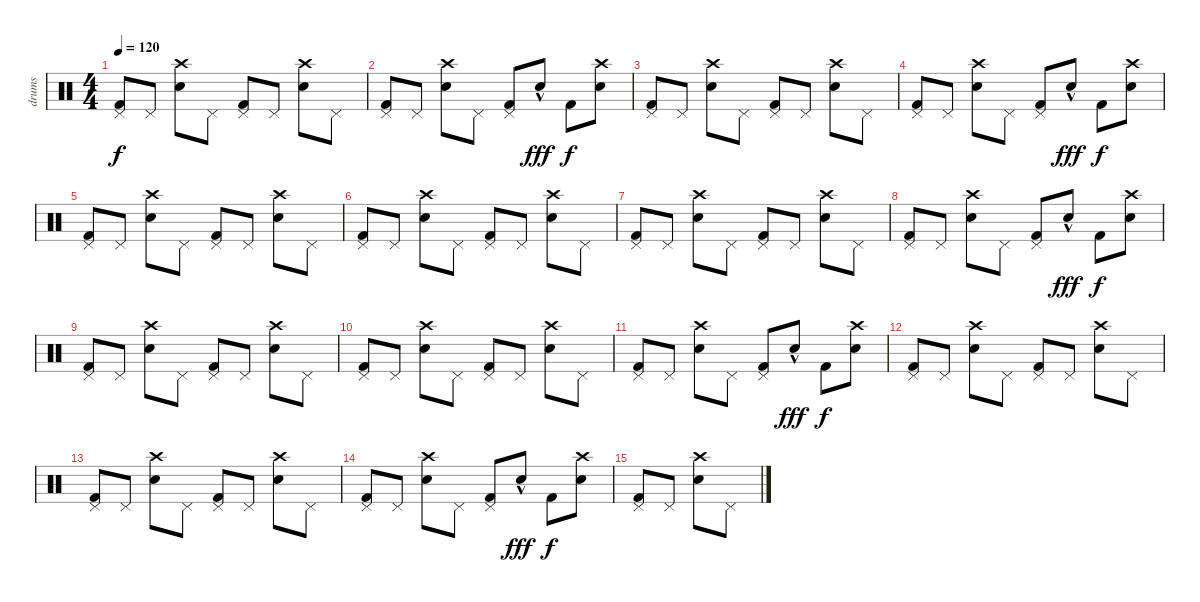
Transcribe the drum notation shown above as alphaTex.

\track ("drums" "drums") {instrument percussion}
\staff {score}
\articulation defaults
\ts (4 4)
\tempo 120
\clef neutral
\ks c
("Pedal Hi-Hat (hit)" "Kick (hit) 2").8{dy f} "Pedal Hi-Hat (hit)".8 ("Crash high (hit)" "Electric Snare (hit)").8 "Pedal Hi-Hat (hit)".8 ("Pedal Hi-Hat (hit)" "Kick (hit) 2").8 "Pedal Hi-Hat (hit)".8 ("Crash high (hit)" "Electric Snare (hit)").8 "Pedal Hi-Hat (hit)".8 |
("Pedal Hi-Hat (hit)" "Kick (hit) 2").8 "Pedal Hi-Hat (hit)".8 ("Crash high (hit)" "Electric Snare (hit)").8 "Pedal Hi-Hat (hit)".8 ("Pedal Hi-Hat (hit)" "Kick (hit) 2").8 "Electric Snare (hit)"{hac}.8{dy fff} "Kick (hit) 2".8{dy f} ("Crash high (hit)" "Electric Snare (hit)").8 |
("Pedal Hi-Hat (hit)" "Kick (hit) 2").8 "Pedal Hi-Hat (hit)".8 ("Crash high (hit)" "Electric Snare (hit)").8 "Pedal Hi-Hat (hit)".8 ("Pedal Hi-Hat (hit)" "Kick (hit) 2").8 "Pedal Hi-Hat (hit)".8 ("Crash high (hit)" "Electric Snare (hit)").8 "Pedal Hi-Hat (hit)".8 |
("Pedal Hi-Hat (hit)" "Kick (hit) 2").8 "Pedal Hi-Hat (hit)".8 ("Crash high (hit)" "Electric Snare (hit)").8 "Pedal Hi-Hat (hit)".8 ("Pedal Hi-Hat (hit)" "Kick (hit) 2").8 "Electric Snare (hit)"{hac}.8{dy fff} "Kick (hit) 2".8{dy f} ("Crash high (hit)" "Electric Snare (hit)").8 |
("Pedal Hi-Hat (hit)" "Kick (hit) 2").8 "Pedal Hi-Hat (hit)".8 ("Crash high (hit)" "Electric Snare (hit)").8 "Pedal Hi-Hat (hit)".8 ("Pedal Hi-Hat (hit)" "Kick (hit) 2").8 "Pedal Hi-Hat (hit)".8 ("Crash high (hit)" "Electric Snare (hit)").8 "Pedal Hi-Hat (hit)".8 |
("Pedal Hi-Hat (hit)" "Kick (hit) 2").8 "Pedal Hi-Hat (hit)".8 ("Crash high (hit)" "Electric Snare (hit)").8 "Pedal Hi-Hat (hit)".8 ("Pedal Hi-Hat (hit)" "Kick (hit) 2").8 "Pedal Hi-Hat (hit)".8 ("Crash high (hit)" "Electric Snare (hit)").8 "Pedal Hi-Hat (hit)".8 |
("Pedal Hi-Hat (hit)" "Kick (hit) 2").8 "Pedal Hi-Hat (hit)".8 ("Crash high (hit)" "Electric Snare (hit)").8 "Pedal Hi-Hat (hit)".8 ("Pedal Hi-Hat (hit)" "Kick (hit) 2").8 "Pedal Hi-Hat (hit)".8 ("Crash high (hit)" "Electric Snare (hit)").8 "Pedal Hi-Hat (hit)".8 |
("Pedal Hi-Hat (hit)" "Kick (hit) 2").8 "Pedal Hi-Hat (hit)".8 ("Crash high (hit)" "Electric Snare (hit)").8 "Pedal Hi-Hat (hit)".8 ("Pedal Hi-Hat (hit)" "Kick (hit) 2").8 "Electric Snare (hit)"{hac}.8{dy fff} "Kick (hit) 2".8{dy f} ("Crash high (hit)" "Electric Snare (hit)").8 |
("Pedal Hi-Hat (hit)" "Kick (hit) 2").8 "Pedal Hi-Hat (hit)".8 ("Crash high (hit)" "Electric Snare (hit)").8 "Pedal Hi-Hat (hit)".8 ("Pedal Hi-Hat (hit)" "Kick (hit) 2").8 "Pedal Hi-Hat (hit)".8 ("Crash high (hit)" "Electric Snare (hit)").8 "Pedal Hi-Hat (hit)".8 |
("Pedal Hi-Hat (hit)" "Kick (hit) 2").8 "Pedal Hi-Hat (hit)".8 ("Crash high (hit)" "Electric Snare (hit)").8 "Pedal Hi-Hat (hit)".8 ("Pedal Hi-Hat (hit)" "Kick (hit) 2").8 "Pedal Hi-Hat (hit)".8 ("Crash high (hit)" "Electric Snare (hit)").8 "Pedal Hi-Hat (hit)".8 |
("Pedal Hi-Hat (hit)" "Kick (hit) 2").8 "Pedal Hi-Hat (hit)".8 ("Crash high (hit)" "Electric Snare (hit)").8 "Pedal Hi-Hat (hit)".8 ("Pedal Hi-Hat (hit)" "Kick (hit) 2").8 "Electric Snare (hit)"{hac}.8{dy fff} "Kick (hit) 2".8{dy f} ("Crash high (hit)" "Electric Snare (hit)").8 |
("Pedal Hi-Hat (hit)" "Kick (hit) 2").8 "Pedal Hi-Hat (hit)".8 ("Crash high (hit)" "Electric Snare (hit)").8 "Pedal Hi-Hat (hit)".8 ("Pedal Hi-Hat (hit)" "Kick (hit) 2").8 "Pedal Hi-Hat (hit)".8 ("Crash high (hit)" "Electric Snare (hit)").8 "Pedal Hi-Hat (hit)".8 |
("Pedal Hi-Hat (hit)" "Kick (hit) 2").8 "Pedal Hi-Hat (hit)".8 ("Crash high (hit)" "Electric Snare (hit)").8 "Pedal Hi-Hat (hit)".8 ("Pedal Hi-Hat (hit)" "Kick (hit) 2").8 "Pedal Hi-Hat (hit)".8 ("Crash high (hit)" "Electric Snare (hit)").8 "Pedal Hi-Hat (hit)".8 |
("Pedal Hi-Hat (hit)" "Kick (hit) 2").8 "Pedal Hi-Hat (hit)".8 ("Crash high (hit)" "Electric Snare (hit)").8 "Pedal Hi-Hat (hit)".8 ("Pedal Hi-Hat (hit)" "Kick (hit) 2").8 "Electric Snare (hit)"{hac}.8{dy fff} "Kick (hit) 2".8{dy f} ("Crash high (hit)" "Electric Snare (hit)").8 |
("Pedal Hi-Hat (hit)" "Kick (hit) 2").8 "Pedal Hi-Hat (hit)".8 ("Crash high (hit)" "Electric Snare (hit)").8 "Pedal Hi-Hat (hit)".8
